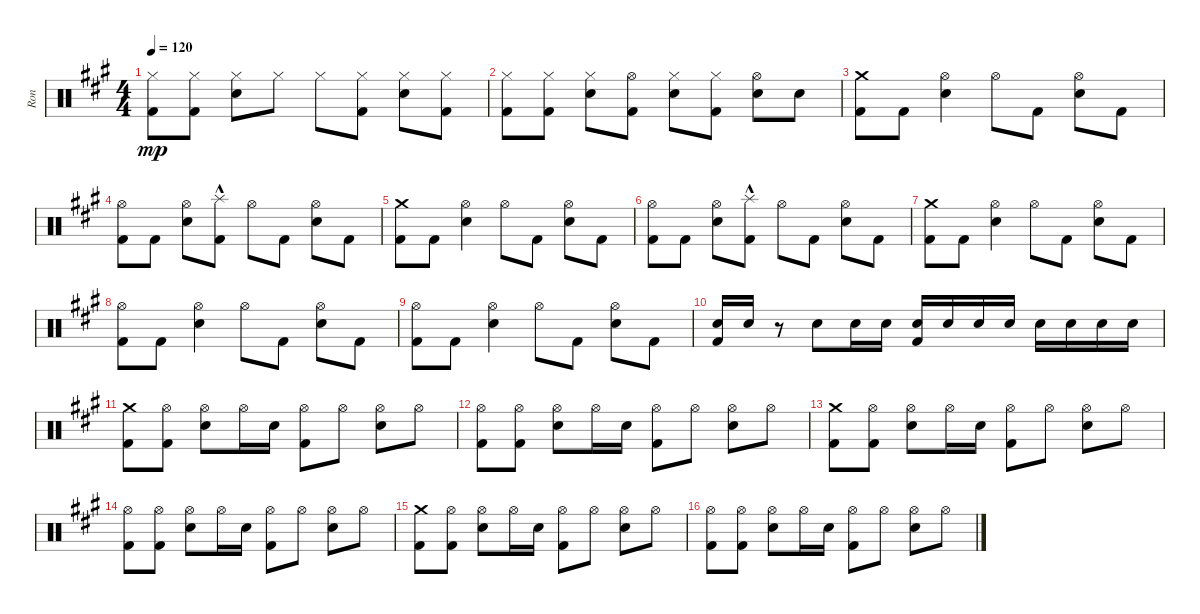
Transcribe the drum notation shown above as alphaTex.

\track ("Ron" "Ron") {instrument percussion}
\staff {score}
\articulation defaults
\ts (4 4)
\tempo 120
\clef neutral
\ks a
("Hi-Hat (closed)" "Kick (hit) 2").8{dy mp} ("Hi-Hat (closed)" "Kick (hit) 2").8 ("Hi-Hat (closed)" "Electric Snare (hit)").8 "Hi-Hat (closed)".8 "Hi-Hat (closed)".8 ("Hi-Hat (closed)" "Kick (hit) 2").8 ("Hi-Hat (closed)" "Electric Snare (hit)").8 ("Hi-Hat (closed)" "Kick (hit) 2").8 |
("Hi-Hat (closed)" "Kick (hit) 2").8 ("Hi-Hat (closed)" "Kick (hit) 2").8 ("Hi-Hat (closed)" "Electric Snare (hit)").8 ("Hi-Hat (open)" "Kick (hit) 2").8 ("Hi-Hat (closed)" "Electric Snare (hit)").8 ("Hi-Hat (closed)" "Kick (hit) 2").8 ("Hi-Hat (open)" "Electric Snare (hit)").8 "Electric Snare (hit)".8 |
("Crash medium (hit)" "Kick (hit) 2").8 "Kick (hit) 2".8 ("Hi-Hat (open)" "Electric Snare (hit)").4 "Hi-Hat (open)".8 "Kick (hit) 2".8 ("Hi-Hat (open)" "Electric Snare (hit)").8 "Kick (hit) 2".8 |
("Hi-Hat (open)" "Kick (hit) 2").8 "Kick (hit) 2".8 ("Hi-Hat (open)" "Electric Snare (hit)").8 ("Splash (hit)"{hac} "Kick (hit) 2").8 "Hi-Hat (open)".8 "Kick (hit) 2".8 ("Hi-Hat (open)" "Electric Snare (hit)").8 "Kick (hit) 2".8 |
("Crash medium (hit)" "Kick (hit) 2").8 "Kick (hit) 2".8 ("Hi-Hat (open)" "Electric Snare (hit)").4 "Hi-Hat (open)".8 "Kick (hit) 2".8 ("Hi-Hat (open)" "Electric Snare (hit)").8 "Kick (hit) 2".8 |
("Hi-Hat (open)" "Kick (hit) 2").8 "Kick (hit) 2".8 ("Hi-Hat (open)" "Electric Snare (hit)").8 ("Splash (hit)"{hac} "Kick (hit) 2").8 "Hi-Hat (open)".8 "Kick (hit) 2".8 ("Hi-Hat (open)" "Electric Snare (hit)").8 "Kick (hit) 2".8 |
("Crash medium (hit)" "Kick (hit) 2").8 "Kick (hit) 2".8 ("Hi-Hat (open)" "Electric Snare (hit)").4 "Hi-Hat (open)".8 "Kick (hit) 2".8 ("Hi-Hat (open)" "Electric Snare (hit)").8 "Kick (hit) 2".8 |
("Hi-Hat (open)" "Kick (hit) 2").8 "Kick (hit) 2".8 ("Hi-Hat (open)" "Electric Snare (hit)").4 "Hi-Hat (open)".8 "Kick (hit) 2".8 ("Hi-Hat (open)" "Electric Snare (hit)").8 "Kick (hit) 2".8 |
("Hi-Hat (open)" "Kick (hit) 2").8 "Kick (hit) 2".8 ("Hi-Hat (open)" "Electric Snare (hit)").4 "Hi-Hat (open)".8 "Kick (hit) 2".8 ("Hi-Hat (open)" "Electric Snare (hit)").8 "Kick (hit) 2".8 |
("Electric Snare (hit)" "Kick (hit) 2").16 "Electric Snare (hit)".16 r.8 "Electric Snare (hit)".8 "Electric Snare (hit)".16 "Electric Snare (hit)".16 ("Electric Snare (hit)" "Kick (hit) 2").16 "Electric Snare (hit)".16 "Electric Snare (hit)".16 "Electric Snare (hit)".16 "Electric Snare (hit)".16 "Electric Snare (hit)".16 "Electric Snare (hit)".16 "Electric Snare (hit)".16 |
("Crash medium (hit)" "Kick (hit) 2").8 ("Hi-Hat (open)" "Kick (hit) 2").8 ("Hi-Hat (open)" "Electric Snare (hit)").8 "Hi-Hat (open)".16 "Electric Snare (hit)".16 ("Hi-Hat (open)" "Kick (hit) 2").8 "Hi-Hat (open)".8 ("Hi-Hat (open)" "Electric Snare (hit)").8 "Hi-Hat (open)".8 |
("Hi-Hat (open)" "Kick (hit) 2").8 ("Hi-Hat (open)" "Kick (hit) 2").8 ("Hi-Hat (open)" "Electric Snare (hit)").8 "Hi-Hat (open)".16 "Electric Snare (hit)".16 ("Hi-Hat (open)" "Kick (hit) 2").8 "Hi-Hat (open)".8 ("Hi-Hat (open)" "Electric Snare (hit)").8 "Hi-Hat (open)".8 |
("Crash medium (hit)" "Kick (hit) 2").8 ("Hi-Hat (open)" "Kick (hit) 2").8 ("Hi-Hat (open)" "Electric Snare (hit)").8 "Hi-Hat (open)".16 "Electric Snare (hit)".16 ("Hi-Hat (open)" "Kick (hit) 2").8 "Hi-Hat (open)".8 ("Hi-Hat (open)" "Electric Snare (hit)").8 "Hi-Hat (open)".8 |
("Hi-Hat (open)" "Kick (hit) 2").8 ("Hi-Hat (open)" "Kick (hit) 2").8 ("Hi-Hat (open)" "Electric Snare (hit)").8 "Hi-Hat (open)".16 "Electric Snare (hit)".16 ("Hi-Hat (open)" "Kick (hit) 2").8 "Hi-Hat (open)".8 ("Hi-Hat (open)" "Electric Snare (hit)").8 "Hi-Hat (open)".8 |
("Crash medium (hit)" "Kick (hit) 2").8 ("Hi-Hat (open)" "Kick (hit) 2").8 ("Hi-Hat (open)" "Electric Snare (hit)").8 "Hi-Hat (open)".16 "Electric Snare (hit)".16 ("Hi-Hat (open)" "Kick (hit) 2").8 "Hi-Hat (open)".8 ("Hi-Hat (open)" "Electric Snare (hit)").8 "Hi-Hat (open)".8 |
("Hi-Hat (open)" "Kick (hit) 2").8 ("Hi-Hat (open)" "Kick (hit) 2").8 ("Hi-Hat (open)" "Electric Snare (hit)").8 "Hi-Hat (open)".16 "Electric Snare (hit)".16 ("Hi-Hat (open)" "Kick (hit) 2").8 "Hi-Hat (open)".8 ("Hi-Hat (open)" "Electric Snare (hit)").8 "Hi-Hat (open)".8
